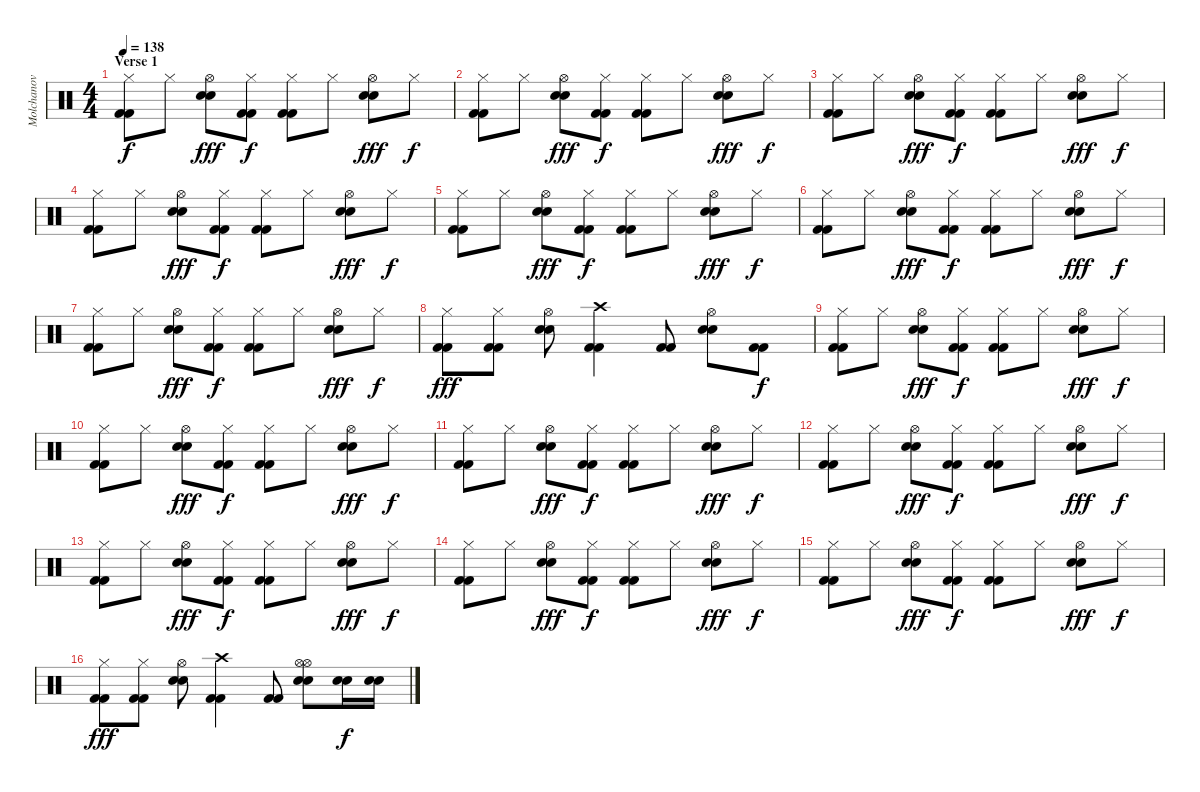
\track ("Molchanov" "Molchanov") {instrument percussion}
\staff {score}
\articulation defaults
\ts (4 4)
\section ("" "Verse 1")
\tempo 138
\clef neutral
\ks c
("Hi-Hat (closed)" "Kick (hit) 2" "Kick (hit) 2").8{dy f} "Hi-Hat (closed)".8 ("Hi-Hat (open)" "Electric Snare (hit)" "Electric Snare (hit)").8{dy fff} ("Hi-Hat (closed)" "Kick (hit) 2" "Kick (hit) 2").8{dy f} ("Hi-Hat (closed)" "Kick (hit) 2" "Kick (hit) 2").8 "Hi-Hat (closed)".8 ("Hi-Hat (open)" "Electric Snare (hit)" "Electric Snare (hit)").8{dy fff} "Hi-Hat (closed)".8{dy f} |
("Hi-Hat (closed)" "Kick (hit) 2" "Kick (hit) 2").8 "Hi-Hat (closed)".8 ("Hi-Hat (open)" "Electric Snare (hit)" "Electric Snare (hit)").8{dy fff} ("Hi-Hat (closed)" "Kick (hit) 2" "Kick (hit) 2").8{dy f} ("Hi-Hat (closed)" "Kick (hit) 2" "Kick (hit) 2").8 "Hi-Hat (closed)".8 ("Hi-Hat (open)" "Electric Snare (hit)" "Electric Snare (hit)").8{dy fff} "Hi-Hat (closed)".8{dy f} |
("Hi-Hat (closed)" "Kick (hit) 2" "Kick (hit) 2").8 "Hi-Hat (closed)".8 ("Hi-Hat (open)" "Electric Snare (hit)" "Electric Snare (hit)").8{dy fff} ("Hi-Hat (closed)" "Kick (hit) 2" "Kick (hit) 2").8{dy f} ("Hi-Hat (closed)" "Kick (hit) 2" "Kick (hit) 2").8 "Hi-Hat (closed)".8 ("Hi-Hat (open)" "Electric Snare (hit)" "Electric Snare (hit)").8{dy fff} "Hi-Hat (closed)".8{dy f} |
("Hi-Hat (closed)" "Kick (hit) 2" "Kick (hit) 2").8 "Hi-Hat (closed)".8 ("Hi-Hat (open)" "Electric Snare (hit)" "Electric Snare (hit)").8{dy fff} ("Hi-Hat (closed)" "Kick (hit) 2" "Kick (hit) 2").8{dy f} ("Hi-Hat (closed)" "Kick (hit) 2" "Kick (hit) 2").8 "Hi-Hat (closed)".8 ("Hi-Hat (open)" "Electric Snare (hit)" "Electric Snare (hit)").8{dy fff} "Hi-Hat (closed)".8{dy f} |
("Hi-Hat (closed)" "Kick (hit) 2" "Kick (hit) 2").8 "Hi-Hat (closed)".8 ("Hi-Hat (open)" "Electric Snare (hit)" "Electric Snare (hit)").8{dy fff} ("Hi-Hat (closed)" "Kick (hit) 2" "Kick (hit) 2").8{dy f} ("Hi-Hat (closed)" "Kick (hit) 2" "Kick (hit) 2").8 "Hi-Hat (closed)".8 ("Hi-Hat (open)" "Electric Snare (hit)" "Electric Snare (hit)").8{dy fff} "Hi-Hat (closed)".8{dy f} |
("Hi-Hat (closed)" "Kick (hit) 2" "Kick (hit) 2").8 "Hi-Hat (closed)".8 ("Hi-Hat (open)" "Electric Snare (hit)" "Electric Snare (hit)").8{dy fff} ("Hi-Hat (closed)" "Kick (hit) 2" "Kick (hit) 2").8{dy f} ("Hi-Hat (closed)" "Kick (hit) 2" "Kick (hit) 2").8 "Hi-Hat (closed)".8 ("Hi-Hat (open)" "Electric Snare (hit)" "Electric Snare (hit)").8{dy fff} "Hi-Hat (closed)".8{dy f} |
("Hi-Hat (closed)" "Kick (hit) 2" "Kick (hit) 2").8 "Hi-Hat (closed)".8 ("Hi-Hat (open)" "Electric Snare (hit)" "Electric Snare (hit)").8{dy fff} ("Hi-Hat (closed)" "Kick (hit) 2" "Kick (hit) 2").8{dy f} ("Hi-Hat (closed)" "Kick (hit) 2" "Kick (hit) 2").8 "Hi-Hat (closed)".8 ("Hi-Hat (open)" "Electric Snare (hit)" "Electric Snare (hit)").8{dy fff} "Hi-Hat (closed)".8{dy f} |
("Hi-Hat (closed)" "Kick (hit) 2" "Kick (hit) 2").8{dy fff} ("Hi-Hat (closed)" "Kick (hit) 2" "Kick (hit) 2").8 ("Hi-Hat (open)" "Electric Snare (hit)" "Electric Snare (hit)").8 ("Crash high (hit)" "Kick (hit) 2" "Kick (hit) 2").4 ("Kick (hit) 2" "Kick (hit) 2").8 ("Hi-Hat (open)" "Electric Snare (hit)" "Electric Snare (hit)").8 ("Kick (hit) 2" "Kick (hit) 2").8{dy f} |
("Hi-Hat (closed)" "Kick (hit) 2" "Kick (hit) 2").8 "Hi-Hat (closed)".8 ("Hi-Hat (open)" "Electric Snare (hit)" "Electric Snare (hit)").8{dy fff} ("Hi-Hat (closed)" "Kick (hit) 2" "Kick (hit) 2").8{dy f} ("Hi-Hat (closed)" "Kick (hit) 2" "Kick (hit) 2").8 "Hi-Hat (closed)".8 ("Hi-Hat (open)" "Electric Snare (hit)" "Electric Snare (hit)").8{dy fff} "Hi-Hat (closed)".8{dy f} |
("Hi-Hat (closed)" "Kick (hit) 2" "Kick (hit) 2").8 "Hi-Hat (closed)".8 ("Hi-Hat (open)" "Electric Snare (hit)" "Electric Snare (hit)").8{dy fff} ("Hi-Hat (closed)" "Kick (hit) 2" "Kick (hit) 2").8{dy f} ("Hi-Hat (closed)" "Kick (hit) 2" "Kick (hit) 2").8 "Hi-Hat (closed)".8 ("Hi-Hat (open)" "Electric Snare (hit)" "Electric Snare (hit)").8{dy fff} "Hi-Hat (closed)".8{dy f} |
("Hi-Hat (closed)" "Kick (hit) 2" "Kick (hit) 2").8 "Hi-Hat (closed)".8 ("Hi-Hat (open)" "Electric Snare (hit)" "Electric Snare (hit)").8{dy fff} ("Hi-Hat (closed)" "Kick (hit) 2" "Kick (hit) 2").8{dy f} ("Hi-Hat (closed)" "Kick (hit) 2" "Kick (hit) 2").8 "Hi-Hat (closed)".8 ("Hi-Hat (open)" "Electric Snare (hit)" "Electric Snare (hit)").8{dy fff} "Hi-Hat (closed)".8{dy f} |
("Hi-Hat (closed)" "Kick (hit) 2" "Kick (hit) 2").8 "Hi-Hat (closed)".8 ("Hi-Hat (open)" "Electric Snare (hit)" "Electric Snare (hit)").8{dy fff} ("Hi-Hat (closed)" "Kick (hit) 2" "Kick (hit) 2").8{dy f} ("Hi-Hat (closed)" "Kick (hit) 2" "Kick (hit) 2").8 "Hi-Hat (closed)".8 ("Hi-Hat (open)" "Electric Snare (hit)" "Electric Snare (hit)").8{dy fff} "Hi-Hat (closed)".8{dy f} |
("Hi-Hat (closed)" "Kick (hit) 2" "Kick (hit) 2").8 "Hi-Hat (closed)".8 ("Hi-Hat (open)" "Electric Snare (hit)" "Electric Snare (hit)").8{dy fff} ("Hi-Hat (closed)" "Kick (hit) 2" "Kick (hit) 2").8{dy f} ("Hi-Hat (closed)" "Kick (hit) 2" "Kick (hit) 2").8 "Hi-Hat (closed)".8 ("Hi-Hat (open)" "Electric Snare (hit)" "Electric Snare (hit)").8{dy fff} "Hi-Hat (closed)".8{dy f} |
("Hi-Hat (closed)" "Kick (hit) 2" "Kick (hit) 2").8 "Hi-Hat (closed)".8 ("Hi-Hat (open)" "Electric Snare (hit)" "Electric Snare (hit)").8{dy fff} ("Hi-Hat (closed)" "Kick (hit) 2" "Kick (hit) 2").8{dy f} ("Hi-Hat (closed)" "Kick (hit) 2" "Kick (hit) 2").8 "Hi-Hat (closed)".8 ("Hi-Hat (open)" "Electric Snare (hit)" "Electric Snare (hit)").8{dy fff} "Hi-Hat (closed)".8{dy f} |
("Hi-Hat (closed)" "Kick (hit) 2" "Kick (hit) 2").8 "Hi-Hat (closed)".8 ("Hi-Hat (open)" "Electric Snare (hit)" "Electric Snare (hit)").8{dy fff} ("Hi-Hat (closed)" "Kick (hit) 2" "Kick (hit) 2").8{dy f} ("Hi-Hat (closed)" "Kick (hit) 2" "Kick (hit) 2").8 "Hi-Hat (closed)".8 ("Hi-Hat (open)" "Electric Snare (hit)" "Electric Snare (hit)").8{dy fff} "Hi-Hat (closed)".8{dy f} |
("Hi-Hat (closed)" "Kick (hit) 2" "Kick (hit) 2").8{dy fff} ("Hi-Hat (closed)" "Kick (hit) 2" "Kick (hit) 2").8 ("Hi-Hat (open)" "Electric Snare (hit)" "Electric Snare (hit)").8 ("Crash high (hit)" "Kick (hit) 2" "Kick (hit) 2").4 ("Kick (hit) 2" "Kick (hit) 2").8 ("Hi-Hat (open)" "Hi-Hat (open)" "Electric Snare (hit)" "Electric Snare (hit)").8 ("Electric Snare (hit)" "Electric Snare (hit)").16{dy f} ("Electric Snare (hit)" "Electric Snare (hit)").16
